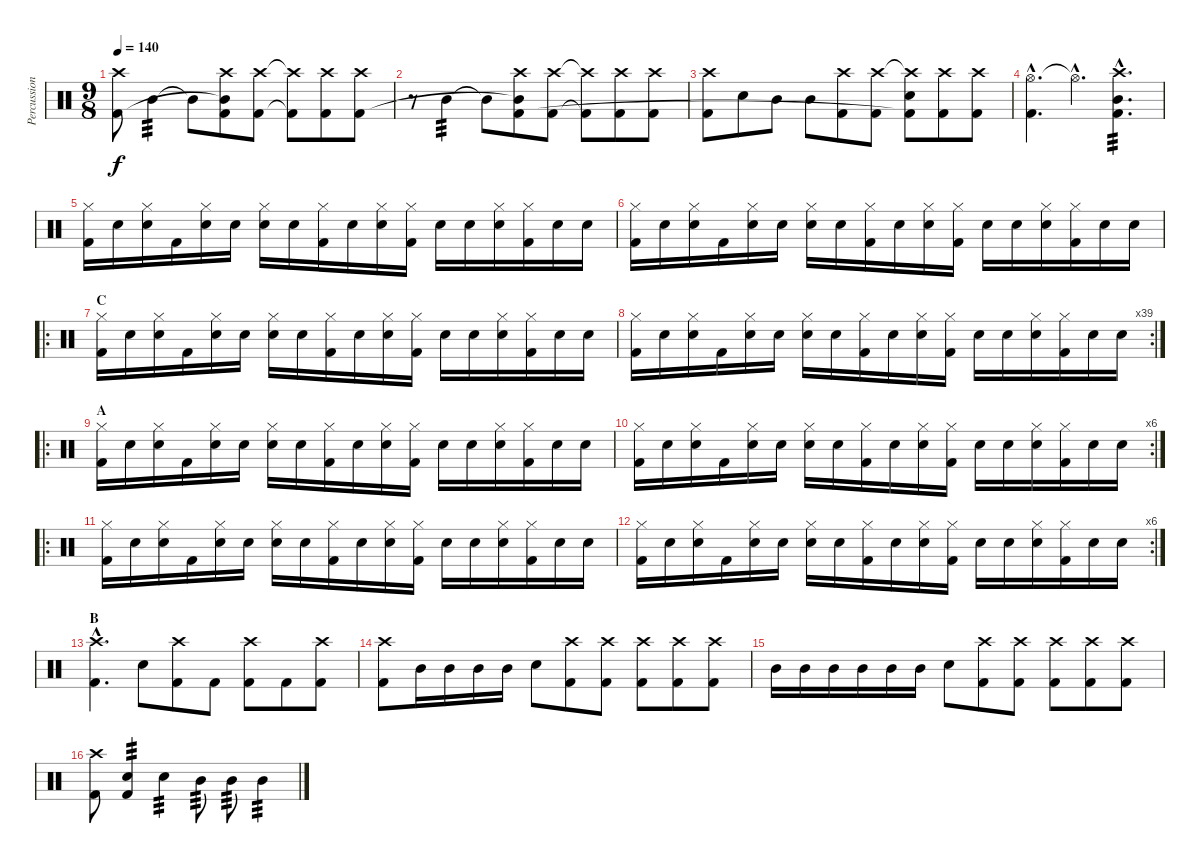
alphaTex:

\track ("Percussion" "Percussion") {instrument percussion}
\staff {score}
\articulation defaults
\ts (9 8)
\tempo 140
\clef neutral
\ks c
("Crash high (hit)" "Kick (hit) 2").8{dy f} "Mid Tom (hit)".4{tp 3} "Mid Tom (hit)"{t}.8 ("Crash high (hit)" "Mid Tom (hit)"{t} "Kick (hit) 2").8 ("Crash high (hit)" "Kick (hit) 2").8 ("Crash high (hit)"{t} "Kick (hit) 2"{t}).8 ("Crash high (hit)" "Kick (hit) 2").8 ("Crash high (hit)" "Kick (hit) 2").8 |
r.8 "Mid Tom (hit)".4{tp 3} "Mid Tom (hit)"{t}.8 ("Crash high (hit)" "Mid Tom (hit)"{t} "Kick (hit) 2").8 ("Crash high (hit)" "Kick (hit) 2").8 ("Crash high (hit)"{t} "Kick (hit) 2"{t}).8 ("Crash high (hit)" "Kick (hit) 2").8 ("Crash high (hit)" "Kick (hit) 2").8 |
("Crash high (hit)" "Kick (hit) 2").8 "Snare (hit) 2".8 "Mid Tom (hit)".8 "Mid Tom (hit)".8 ("Crash high (hit)" "Kick (hit) 2").8 ("Crash high (hit)" "Kick (hit) 2").8 ("Crash high (hit)"{t} "Snare (hit) 2" "Kick (hit) 2"{t}).8 ("Crash high (hit)" "Kick (hit) 2").8 ("Crash high (hit)" "Kick (hit) 2").8 |
("Hi-Hat (open)"{hac} "Kick (hit) 2"{hac}).4{d} "Hi-Hat (open)"{hac t}.4{d} ("Crash high (hit)"{hac} "Mid Tom (hit)"{hac} "Kick (hit) 2"{hac}).4{d tp 3} |
("Hi-Hat (closed)" "Kick (hit) 2").16 "Snare (hit) 2".16 ("Hi-Hat (closed)" "Snare (hit) 2").16 "Kick (hit) 2".16 ("Hi-Hat (closed)" "Snare (hit) 2").16 "Snare (hit) 2".16 ("Hi-Hat (closed)" "Snare (hit) 2").16 "Snare (hit) 2".16 ("Hi-Hat (closed)" "Kick (hit) 2").16 "Snare (hit) 2".16 ("Hi-Hat (closed)" "Snare (hit) 2").16 ("Hi-Hat (closed)" "Kick (hit) 2").16 "Snare (hit) 2".16 "Snare (hit) 2".16 ("Hi-Hat (closed)" "Snare (hit) 2").16 ("Hi-Hat (closed)" "Kick (hit) 2").16 "Snare (hit) 2".16 "Snare (hit) 2".16 |
("Hi-Hat (closed)" "Kick (hit) 2").16 "Snare (hit) 2".16 ("Hi-Hat (closed)" "Snare (hit) 2").16 "Kick (hit) 2".16 ("Hi-Hat (closed)" "Snare (hit) 2").16 "Snare (hit) 2".16 ("Hi-Hat (closed)" "Snare (hit) 2").16 "Snare (hit) 2".16 ("Hi-Hat (closed)" "Kick (hit) 2").16 "Snare (hit) 2".16 ("Hi-Hat (closed)" "Snare (hit) 2").16 ("Hi-Hat (closed)" "Kick (hit) 2").16 "Snare (hit) 2".16 "Snare (hit) 2".16 ("Hi-Hat (closed)" "Snare (hit) 2").16 ("Hi-Hat (closed)" "Kick (hit) 2").16 "Snare (hit) 2".16 "Snare (hit) 2".16 |
\ro
\section ("" "C")
("Hi-Hat (closed)" "Kick (hit) 2").16 "Snare (hit) 2".16 ("Hi-Hat (closed)" "Snare (hit) 2").16 "Kick (hit) 2".16 ("Hi-Hat (closed)" "Snare (hit) 2").16 "Snare (hit) 2".16 ("Hi-Hat (closed)" "Snare (hit) 2").16 "Snare (hit) 2".16 ("Hi-Hat (closed)" "Kick (hit) 2").16 "Snare (hit) 2".16 ("Hi-Hat (closed)" "Snare (hit) 2").16 ("Hi-Hat (closed)" "Kick (hit) 2").16 "Snare (hit) 2".16 "Snare (hit) 2".16 ("Hi-Hat (closed)" "Snare (hit) 2").16 ("Hi-Hat (closed)" "Kick (hit) 2").16 "Snare (hit) 2".16 "Snare (hit) 2".16 |
\rc 39
("Hi-Hat (closed)" "Kick (hit) 2").16 "Snare (hit) 2".16 ("Hi-Hat (closed)" "Snare (hit) 2").16 "Kick (hit) 2".16 ("Hi-Hat (closed)" "Snare (hit) 2").16 "Snare (hit) 2".16 ("Hi-Hat (closed)" "Snare (hit) 2").16 "Snare (hit) 2".16 ("Hi-Hat (closed)" "Kick (hit) 2").16 "Snare (hit) 2".16 ("Hi-Hat (closed)" "Snare (hit) 2").16 ("Hi-Hat (closed)" "Kick (hit) 2").16 "Snare (hit) 2".16 "Snare (hit) 2".16 ("Hi-Hat (closed)" "Snare (hit) 2").16 ("Hi-Hat (closed)" "Kick (hit) 2").16 "Snare (hit) 2".16 "Snare (hit) 2".16 |
\ro
\section ("" "A")
("Hi-Hat (closed)" "Kick (hit) 2").16 "Snare (hit) 2".16 ("Hi-Hat (closed)" "Snare (hit) 2").16 "Kick (hit) 2".16 ("Hi-Hat (closed)" "Snare (hit) 2").16 "Snare (hit) 2".16 ("Hi-Hat (closed)" "Snare (hit) 2").16 "Snare (hit) 2".16 ("Hi-Hat (closed)" "Kick (hit) 2").16 "Snare (hit) 2".16 ("Hi-Hat (closed)" "Snare (hit) 2").16 ("Hi-Hat (closed)" "Kick (hit) 2").16 "Snare (hit) 2".16 "Snare (hit) 2".16 ("Hi-Hat (closed)" "Snare (hit) 2").16 ("Hi-Hat (closed)" "Kick (hit) 2").16 "Snare (hit) 2".16 "Snare (hit) 2".16 |
\rc 6
("Hi-Hat (closed)" "Kick (hit) 2").16 "Snare (hit) 2".16 ("Hi-Hat (closed)" "Snare (hit) 2").16 "Kick (hit) 2".16 ("Hi-Hat (closed)" "Snare (hit) 2").16 "Snare (hit) 2".16 ("Hi-Hat (closed)" "Snare (hit) 2").16 "Snare (hit) 2".16 ("Hi-Hat (closed)" "Kick (hit) 2").16 "Snare (hit) 2".16 ("Hi-Hat (closed)" "Snare (hit) 2").16 ("Hi-Hat (closed)" "Kick (hit) 2").16 "Snare (hit) 2".16 "Snare (hit) 2".16 ("Hi-Hat (closed)" "Snare (hit) 2").16 ("Hi-Hat (closed)" "Kick (hit) 2").16 "Snare (hit) 2".16 "Snare (hit) 2".16 |
\ro
("Hi-Hat (closed)" "Kick (hit) 2").16 "Snare (hit) 2".16 ("Hi-Hat (closed)" "Snare (hit) 2").16 "Kick (hit) 2".16 ("Hi-Hat (closed)" "Snare (hit) 2").16 "Snare (hit) 2".16 ("Hi-Hat (closed)" "Snare (hit) 2").16 "Snare (hit) 2".16 ("Hi-Hat (closed)" "Kick (hit) 2").16 "Snare (hit) 2".16 ("Hi-Hat (closed)" "Snare (hit) 2").16 ("Hi-Hat (closed)" "Kick (hit) 2").16 "Snare (hit) 2".16 "Snare (hit) 2".16 ("Hi-Hat (closed)" "Snare (hit) 2").16 ("Hi-Hat (closed)" "Kick (hit) 2").16 "Snare (hit) 2".16 "Snare (hit) 2".16 |
\rc 6
("Hi-Hat (closed)" "Kick (hit) 2").16 "Snare (hit) 2".16 ("Hi-Hat (closed)" "Snare (hit) 2").16 "Kick (hit) 2".16 ("Hi-Hat (closed)" "Snare (hit) 2").16 "Snare (hit) 2".16 ("Hi-Hat (closed)" "Snare (hit) 2").16 "Snare (hit) 2".16 ("Hi-Hat (closed)" "Kick (hit) 2").16 "Snare (hit) 2".16 ("Hi-Hat (closed)" "Snare (hit) 2").16 ("Hi-Hat (closed)" "Kick (hit) 2").16 "Snare (hit) 2".16 "Snare (hit) 2".16 ("Hi-Hat (closed)" "Snare (hit) 2").16 ("Hi-Hat (closed)" "Kick (hit) 2").16 "Snare (hit) 2".16 "Snare (hit) 2".16 |
\section ("" "B")
("Crash high (hit)"{hac} "Kick (hit) 2"{hac}).4{d} "Snare (hit) 2".8 ("Crash high (hit)" "Kick (hit) 2").8 "Kick (hit) 2".8 ("Crash high (hit)" "Kick (hit) 2").8 "Kick (hit) 2".8 ("Crash high (hit)" "Kick (hit) 2").8 |
("Crash high (hit)" "Kick (hit) 2").8 "Mid Tom (hit)".16 "Mid Tom (hit)".16 "Mid Tom (hit)".16 "Mid Tom (hit)".16 "Snare (hit) 2".8 ("Crash high (hit)" "Kick (hit) 2").8 ("Crash high (hit)" "Kick (hit) 2").8 ("Crash high (hit)" "Kick (hit) 2").8 ("Crash high (hit)" "Kick (hit) 2").8 ("Crash high (hit)" "Kick (hit) 2").8 |
"Mid Tom (hit)".16 "Mid Tom (hit)".16 "Mid Tom (hit)".16 "Mid Tom (hit)".16 "Mid Tom (hit)".16 "Mid Tom (hit)".16 "Snare (hit) 2".8 ("Crash high (hit)" "Kick (hit) 2").8 ("Crash high (hit)" "Kick (hit) 2").8 ("Crash high (hit)" "Kick (hit) 2").8 ("Crash high (hit)" "Kick (hit) 2").8 ("Crash high (hit)" "Kick (hit) 2").8 |
("Crash high (hit)" "Kick (hit) 2").8 ("Snare (hit) 2" "Kick (hit) 2").4{tp 3} "Snare (hit) 2".4{tp 3} "Mid Tom (hit)".8{tp 3} "Mid Tom (hit)".8{tp 3} "Mid Tom (hit)".4{tp 3}
